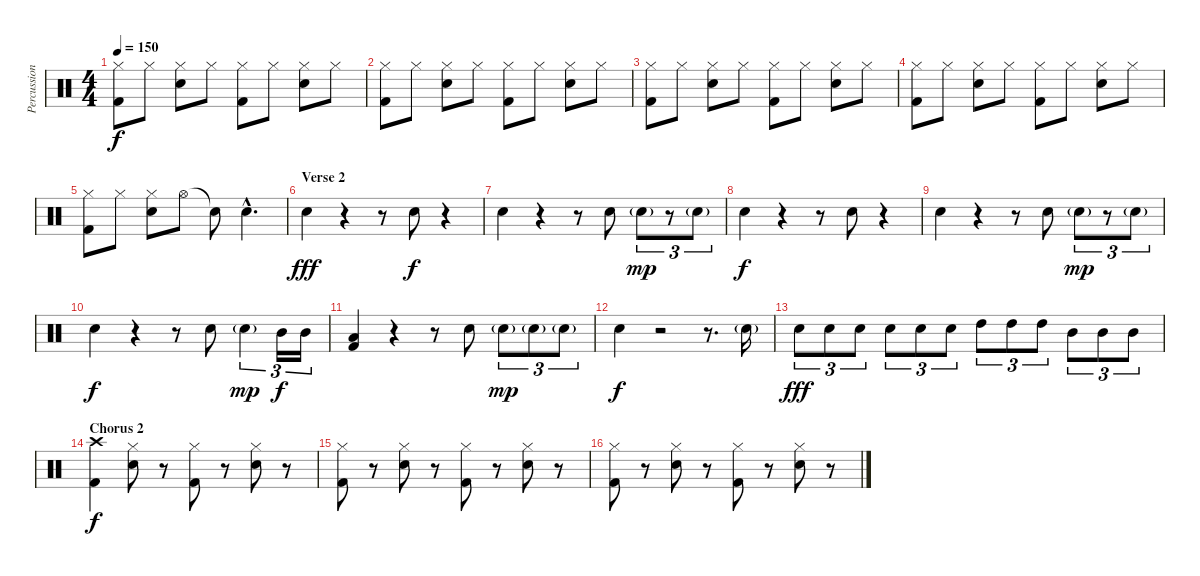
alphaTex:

\track ("Percussions" "Percussion") {instrument percussion}
\staff {score}
\articulation defaults
\ts (4 4)
\tempo 150
\clef neutral
\ks c
("Hi-Hat (closed)" "Kick (hit) 2").8{dy f} "Hi-Hat (closed)".8 ("Hi-Hat (closed)" "Snare (hit) 2").8 "Hi-Hat (closed)".8 ("Hi-Hat (closed)" "Kick (hit) 2").8 "Hi-Hat (closed)".8 ("Hi-Hat (closed)" "Snare (hit) 2").8 "Hi-Hat (closed)".8 |
("Hi-Hat (closed)" "Kick (hit) 2").8 "Hi-Hat (closed)".8 ("Hi-Hat (closed)" "Snare (hit) 2").8 "Hi-Hat (closed)".8 ("Hi-Hat (closed)" "Kick (hit) 2").8 "Hi-Hat (closed)".8 ("Hi-Hat (closed)" "Snare (hit) 2").8 "Hi-Hat (closed)".8 |
("Hi-Hat (closed)" "Kick (hit) 2").8 "Hi-Hat (closed)".8 ("Hi-Hat (closed)" "Snare (hit) 2").8 "Hi-Hat (closed)".8 ("Hi-Hat (closed)" "Kick (hit) 2").8 "Hi-Hat (closed)".8 ("Hi-Hat (closed)" "Snare (hit) 2").8 "Hi-Hat (closed)".8 |
("Hi-Hat (closed)" "Kick (hit) 2").8 "Hi-Hat (closed)".8 ("Hi-Hat (closed)" "Snare (hit) 2").8 "Hi-Hat (closed)".8 ("Hi-Hat (closed)" "Kick (hit) 2").8 "Hi-Hat (closed)".8 ("Hi-Hat (closed)" "Snare (hit) 2").8 "Hi-Hat (closed)".8 |
("Hi-Hat (closed)" "Kick (hit) 2").8 "Hi-Hat (closed)".8 ("Hi-Hat (closed)" "Snare (hit) 2").8 "Hi-Hat (open)".8 "Snare (hit)"{t}.8 "Snare (hit) 2"{hac}.4{d} |
\section ("" "Verse 2")
"Snare (hit) 2".4{dy fff} r.4 r.8 "Snare (hit) 2".8{dy f} r.4 |
"Snare (hit) 2".4 r.4 r.8 "Snare (hit) 2".8 "Snare (hit) 2"{g}.8{tu (3 2) dy mp} r.8{tu (3 2)} "Snare (hit) 2"{g}.8{tu (3 2)} |
"Snare (hit) 2".4{dy f} r.4 r.8 "Snare (hit) 2".8 r.4 |
"Snare (hit) 2".4 r.4 r.8 "Snare (hit) 2".8 "Snare (hit) 2"{g}.8{tu (3 2) dy mp} r.8{tu (3 2)} "Snare (hit) 2"{g}.8{tu (3 2)} |
"Snare (hit) 2".4{dy f} r.4 r.8 "Snare (hit) 2".8 "Snare (hit) 2"{g}.4{tu (3 2) dy mp} "Mid Tom (hit)".16{tu (3 2) dy f} "Mid Tom (hit)".16{tu (3 2)} |
("Low Floor Tom (hit)" "Kick (hit) 2").4 r.4 r.8 "Snare (hit) 2".8 "Snare (hit) 2"{g}.8{tu (3 2) dy mp} "Snare (hit) 2"{g}.8{tu (3 2)} "Snare (hit) 2"{g}.8{tu (3 2)} |
"Snare (hit) 2".4{dy f} r.2 r.8{d} "Snare (hit) 2"{g}.16 |
"Snare (hit) 2".8{tu (3 2) dy fff} "Snare (hit) 2".8{tu (3 2)} "Snare (hit) 2".8{tu (3 2)} "Snare (hit) 2".8{tu (3 2)} "Snare (hit) 2".8{tu (3 2)} "Snare (hit) 2".8{tu (3 2)} "High Tom (hit)".8{tu (3 2)} "High Tom (hit)".8{tu (3 2)} "High Tom (hit)".8{tu (3 2)} "Mid Tom (hit)".8{tu (3 2)} "Mid Tom (hit)".8{tu (3 2)} "Mid Tom (hit)".8{tu (3 2)} |
\section ("" "Chorus 2")
("Crash high (hit)" "Kick (hit) 2").4{dy f} ("Hi-Hat (closed)" "Snare (hit) 2").8 r.8 ("Hi-Hat (closed)" "Kick (hit) 2").8 r.8 ("Hi-Hat (closed)" "Snare (hit) 2").8 r.8 |
("Hi-Hat (closed)" "Kick (hit) 2").8 r.8 ("Hi-Hat (closed)" "Snare (hit) 2").8 r.8 ("Hi-Hat (closed)" "Kick (hit) 2").8 r.8 ("Hi-Hat (closed)" "Snare (hit) 2").8 r.8 |
("Hi-Hat (closed)" "Kick (hit) 2").8 r.8 ("Hi-Hat (closed)" "Snare (hit) 2").8 r.8 ("Hi-Hat (closed)" "Kick (hit) 2").8 r.8 ("Hi-Hat (closed)" "Snare (hit) 2").8 r.8
